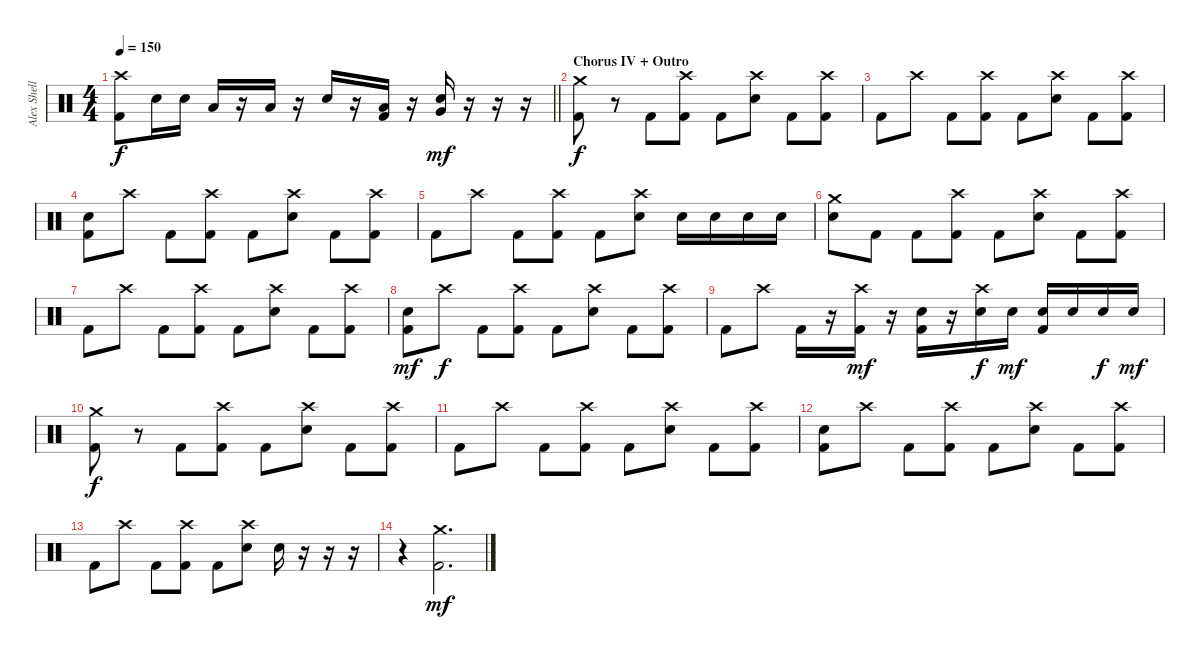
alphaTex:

\track ("Alex Shellnutt" "Alex Shell") {instrument percussion}
\staff {score}
\articulation defaults
\ts (4 4)
\tempo 150
\clef neutral
\barLineRight lightlight
\ks c
("Crash high (hit)" "Kick (hit) 2").8{dy f} "Snare (hit) 2".16 "Snare (hit) 2".16 "Low Tom (hit)".16 r.16 "Low Floor Tom (hit)".16 r.16 "Snare (hit) 2".16 r.16 ("Low Floor Tom (hit)" "Kick (hit) 2").16 r.16 ("Very Low Tom (hit)" "Snare (hit) 2").16{dy mf} r.16 r.16 r.16 |
\section ("" "Chorus IV + Outro")
("Crash medium (hit)" "Kick (hit) 2").8{dy f} r.8 "Kick (hit) 2".8 ("Crash high (hit)" "Kick (hit) 2").8 "Kick (hit) 2".8 ("Crash high (hit)" "Snare (hit) 2").8 "Kick (hit) 2".8 ("Crash high (hit)" "Kick (hit) 2").8 |
"Kick (hit) 2".8 "Crash high (hit)".8 "Kick (hit) 2".8 ("Crash high (hit)" "Kick (hit) 2").8 "Kick (hit) 2".8 ("Crash high (hit)" "Snare (hit) 2").8 "Kick (hit) 2".8 ("Crash high (hit)" "Kick (hit) 2").8 |
("Snare (hit) 2" "Kick (hit) 2").8 "Crash high (hit)".8 "Kick (hit) 2".8 ("Crash high (hit)" "Kick (hit) 2").8 "Kick (hit) 2".8 ("Crash high (hit)" "Snare (hit) 2").8 "Kick (hit) 2".8 ("Crash high (hit)" "Kick (hit) 2").8 |
"Kick (hit) 2".8 "Crash high (hit)".8 "Kick (hit) 2".8 ("Crash high (hit)" "Kick (hit) 2").8 "Kick (hit) 2".8 ("Crash high (hit)" "Snare (hit) 2").8 "Snare (hit) 2".16 "Snare (hit) 2".16 "Snare (hit) 2".16 "Snare (hit) 2".16 |
("Crash medium (hit)" "Snare (hit) 2").8 "Kick (hit) 2".8 "Kick (hit) 2".8 ("Crash high (hit)" "Kick (hit) 2").8 "Kick (hit) 2".8 ("Crash high (hit)" "Snare (hit) 2").8 "Kick (hit) 2".8 ("Crash high (hit)" "Kick (hit) 2").8 |
"Kick (hit) 2".8 "Crash high (hit)".8 "Kick (hit) 2".8 ("Crash high (hit)" "Kick (hit) 2").8 "Kick (hit) 2".8 ("Crash high (hit)" "Snare (hit) 2").8 "Kick (hit) 2".8 ("Crash high (hit)" "Kick (hit) 2").8 |
("Snare (hit) 2" "Kick (hit) 2").8{dy mf} "Crash high (hit)".8{dy f} "Kick (hit) 2".8 ("Crash high (hit)" "Kick (hit) 2").8 "Kick (hit) 2".8 ("Crash high (hit)" "Snare (hit) 2").8 "Kick (hit) 2".8 ("Crash high (hit)" "Kick (hit) 2").8 |
"Kick (hit) 2".8 "Crash high (hit)".8 "Kick (hit) 2".16 r.16 ("Crash high (hit)" "Kick (hit) 2").16{dy mf} r.16 ("Snare (hit) 2" "Kick (hit) 2").16 r.16 ("Crash high (hit)" "Snare (hit) 2").16{dy f} "Snare (hit) 2".16{dy mf} ("Snare (hit) 2" "Kick (hit) 2").16 "Snare (hit) 2".16 "Snare (hit) 2".16{dy f} "Snare (hit) 2".16{dy mf} |
("Crash medium (hit)" "Kick (hit) 2").8{dy f} r.8 "Kick (hit) 2".8 ("Crash high (hit)" "Kick (hit) 2").8 "Kick (hit) 2".8 ("Crash high (hit)" "Snare (hit) 2").8 "Kick (hit) 2".8 ("Crash high (hit)" "Kick (hit) 2").8 |
"Kick (hit) 2".8 "Crash high (hit)".8 "Kick (hit) 2".8 ("Crash high (hit)" "Kick (hit) 2").8 "Kick (hit) 2".8 ("Crash high (hit)" "Snare (hit) 2").8 "Kick (hit) 2".8 ("Crash high (hit)" "Kick (hit) 2").8 |
("Snare (hit) 2" "Kick (hit) 2").8 "Crash high (hit)".8 "Kick (hit) 2".8 ("Crash high (hit)" "Kick (hit) 2").8 "Kick (hit) 2".8 ("Crash high (hit)" "Snare (hit) 2").8 "Kick (hit) 2".8 ("Crash high (hit)" "Kick (hit) 2").8 |
"Kick (hit) 2".8 "Crash high (hit)".8 "Kick (hit) 2".8 ("Crash high (hit)" "Kick (hit) 2").8 "Kick (hit) 2".8 ("Crash high (hit)" "Snare (hit) 2").8 "Snare (hit) 2".16 r.16 r.16 r.16 |
r.4 ("Crash medium (hit)" "Kick (hit) 2").2{d dy mf}
